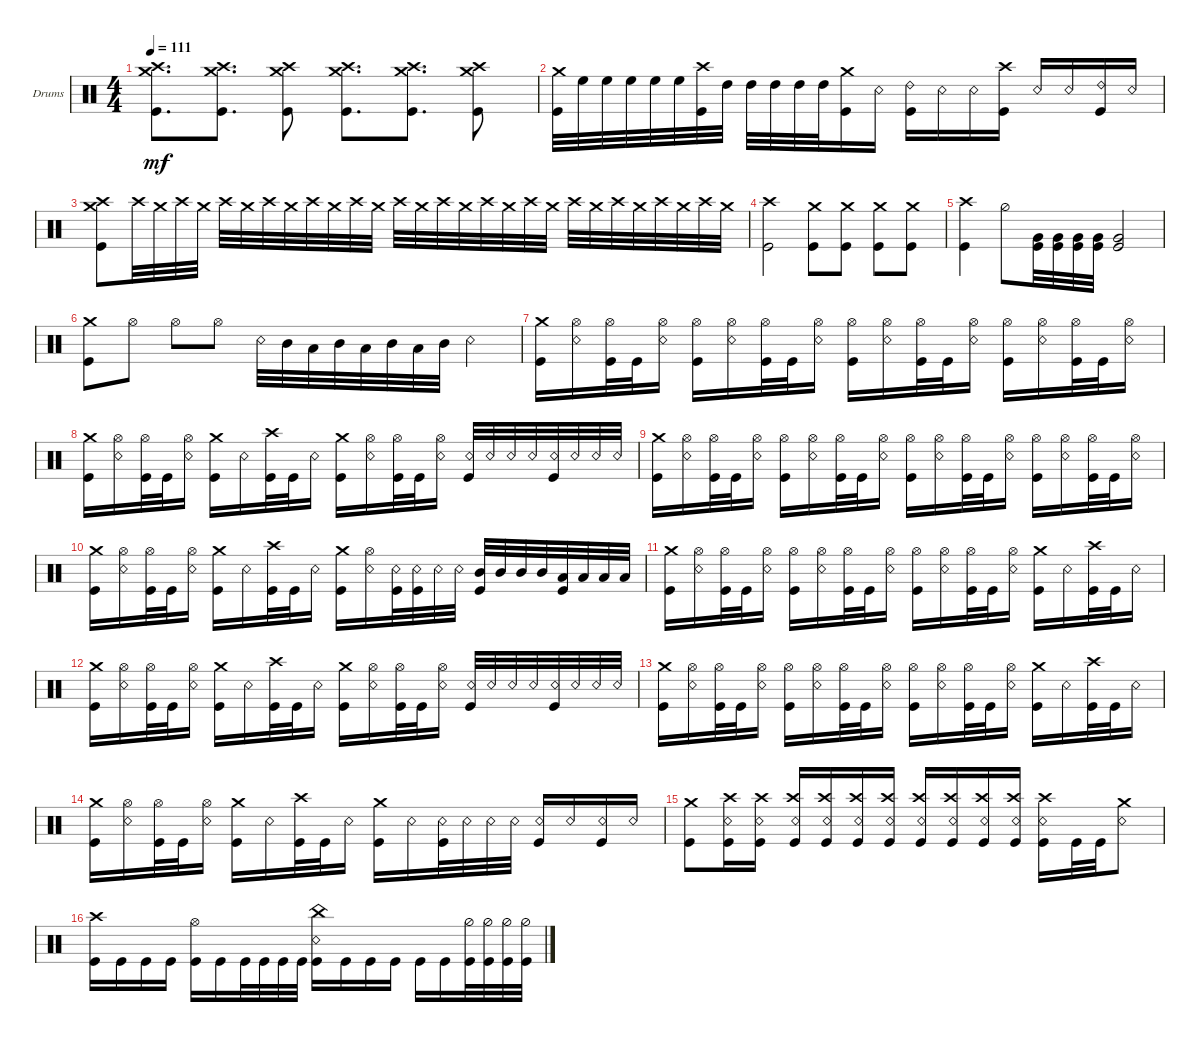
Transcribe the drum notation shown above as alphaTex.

\defaultSystemsLayout 4
\bracketExtendMode groupsimilarinstruments
\firstSystemTrackNameOrientation horizontal
\otherSystemsTrackNameOrientation horizontal
\track ("Drums" "Drums") {instrument percussion}
\staff {score}
\articulation defaults
\ts (4 4)
\tempo 111
\clef neutral
\ks c
("Kick (hit)" "Crash medium (hit)" "Crash high (hit)").8{d dy mf} ("Kick (hit)" "Crash medium (hit)" "Crash high (hit)").8{d} ("Kick (hit)" "Crash medium (hit)" "Crash high (hit)").8 ("Kick (hit)" "Crash medium (hit)" "Crash high (hit)").8{d} ("Kick (hit)" "Crash medium (hit)" "Crash high (hit)").8{d} ("Kick (hit)" "Crash medium (hit)" "Crash high (hit)").8 |
("Kick (hit)" "Crash medium (hit)").32 "High Floor Tom (hit)".32 "High Floor Tom (hit)".32 "High Floor Tom (hit)".32 "High Floor Tom (hit)".32 "High Floor Tom (hit)".32 ("Kick (hit)" "Crash high (hit)").32 "High Tom (hit)".32 "High Tom (hit)".32 "High Tom (hit)".32 "High Tom (hit)".32 "High Tom (hit)".32 ("Kick (hit)" "Crash medium (hit)").16 "Snare (rim shot)".16 ("Kick (hit)" "Ride (bell) 2").16 "Snare (rim shot)".16 "Snare (rim shot)".16 ("Kick (hit)" "Crash high (hit)").16 "Snare (rim shot)".16 "Snare (rim shot)".16 ("Kick (hit)" "Ride (bell) 2").16 "Snare (rim shot)".16 |
("Kick (hit)" "Crash medium (hit)" "Crash high (hit)").8 "Crash high (hit)".32 "Crash medium (hit)".32 "Crash high (hit)".32 "Crash medium (hit)".32 "Crash high (hit)".32 "Crash medium (hit)".32 "Crash high (hit)".32 "Crash medium (hit)".32 "Crash high (hit)".32 "Crash medium (hit)".32 "Crash high (hit)".32 "Crash medium (hit)".32 "Crash high (hit)".32 "Crash medium (hit)".32 "Crash high (hit)".32 "Crash medium (hit)".32 "Crash high (hit)".32 "Crash medium (hit)".32 "Crash high (hit)".32 "Crash medium (hit)".32 "Crash high (hit)".32 "Crash medium (hit)".32 "Crash high (hit)".32 "Crash medium (hit)".32 "Crash high (hit)".32 "Crash medium (hit)".32 "Crash high (hit)".32 "Crash medium (hit)".32 |
("Kick (hit)" "Crash high (hit)").2 ("Kick (hit)" "Crash medium (hit)").8 ("Kick (hit)" "Crash medium (hit)").8 ("Kick (hit)" "Crash medium (hit)").8 ("Kick (hit)" "Crash medium (hit)").8 |
("Kick (hit)" "Crash high (hit)").4 "Hi-Hat (half)".8 ("Kick (hit)" "Very Low Tom (hit)").32 ("Kick (hit)" "Very Low Tom (hit)").32 ("Kick (hit)" "Very Low Tom (hit)").32 ("Kick (hit)" "Very Low Tom (hit)").32 ("Kick (hit)" "Very Low Tom (hit)").2 |
("Kick (hit)" "Crash medium (hit)").8 "Hi-Hat (open)".8 "Hi-Hat (open)".8 "Hi-Hat (open)".8 "Snare (rim shot)".32 "Mid Tom (hit)".32 "Low Tom (hit)".32 "Mid Tom (hit)".32 "Low Tom (hit)".32 "Mid Tom (hit)".32 "Low Tom (hit)".32 "Mid Tom (hit)".32 "Snare (rim shot)".4 |
("Kick (hit)" "Crash medium (hit)").16 ("Snare (rim shot)" "Hi-Hat (open)").16 ("Kick (hit)" "Hi-Hat (open)").32 "Kick (hit)".32 ("Snare (rim shot)" "Hi-Hat (open)").16 ("Kick (hit)" "Hi-Hat (open)").16 ("Snare (rim shot)" "Hi-Hat (open)").16 ("Kick (hit)" "Hi-Hat (open)").32 "Kick (hit)".32 ("Snare (rim shot)" "Hi-Hat (open)").16 ("Kick (hit)" "Hi-Hat (open)").16 ("Snare (rim shot)" "Hi-Hat (open)").16 ("Kick (hit)" "Hi-Hat (open)").32 "Kick (hit)".32 ("Snare (rim shot)" "Hi-Hat (open)").16 ("Kick (hit)" "Hi-Hat (open)").16 ("Snare (rim shot)" "Hi-Hat (open)").16 ("Kick (hit)" "Hi-Hat (open)").32 "Kick (hit)".32 ("Snare (rim shot)" "Hi-Hat (open)").16 |
("Kick (hit)" "Crash medium (hit)").16 ("Snare (rim shot)" "Hi-Hat (open)").16 ("Kick (hit)" "Hi-Hat (open)").32 "Kick (hit)".32 ("Snare (rim shot)" "Hi-Hat (open)").16 ("Kick (hit)" "Crash medium (hit)").16 "Snare (rim shot)".16 ("Kick (hit)" "Crash high (hit)").32 "Kick (hit)".32 "Snare (rim shot)".16 ("Kick (hit)" "Crash medium (hit)").16 ("Snare (rim shot)" "Hi-Hat (open)").16 ("Kick (hit)" "Hi-Hat (open)").32 "Kick (hit)".32 ("Snare (rim shot)" "Hi-Hat (open)").16 ("Kick (hit)" "Snare (rim shot)").32 "Snare (rim shot)".32 "Snare (rim shot)".32 "Snare (rim shot)".32 ("Kick (hit)" "Snare (rim shot)").32 "Snare (rim shot)".32 "Snare (rim shot)".32 "Snare (rim shot)".32 |
("Kick (hit)" "Crash medium (hit)").16 ("Snare (rim shot)" "Hi-Hat (open)").16 ("Kick (hit)" "Hi-Hat (open)").32 "Kick (hit)".32 ("Snare (rim shot)" "Hi-Hat (open)").16 ("Kick (hit)" "Hi-Hat (open)").16 ("Snare (rim shot)" "Hi-Hat (open)").16 ("Kick (hit)" "Hi-Hat (open)").32 "Kick (hit)".32 ("Snare (rim shot)" "Hi-Hat (open)").16 ("Kick (hit)" "Hi-Hat (open)").16 ("Snare (rim shot)" "Hi-Hat (open)").16 ("Kick (hit)" "Hi-Hat (open)").32 "Kick (hit)".32 ("Snare (rim shot)" "Hi-Hat (open)").16 ("Kick (hit)" "Hi-Hat (open)").16 ("Snare (rim shot)" "Hi-Hat (open)").16 ("Kick (hit)" "Hi-Hat (open)").32 "Kick (hit)".32 ("Snare (rim shot)" "Hi-Hat (open)").16 |
("Kick (hit)" "Crash medium (hit)").16 ("Snare (rim shot)" "Hi-Hat (open)").16 ("Kick (hit)" "Hi-Hat (open)").32 "Kick (hit)".32 ("Snare (rim shot)" "Hi-Hat (open)").16 ("Kick (hit)" "Crash medium (hit)").16 "Snare (rim shot)".16 ("Kick (hit)" "Crash high (hit)").32 "Kick (hit)".32 "Snare (rim shot)".16 ("Kick (hit)" "Crash medium (hit)").16 ("Snare (rim shot)" "Hi-Hat (open)").16 ("Kick (hit)" "Snare (rim shot)").32 ("Kick (hit)" "Snare (rim shot)").32 "Snare (rim shot)".32 "Snare (rim shot)".32 ("Mid Tom (hit)" "Kick (hit)").32 "Mid Tom (hit)".32 "Mid Tom (hit)".32 "Mid Tom (hit)".32 ("Low Tom (hit)" "Kick (hit)").32 "Low Tom (hit)".32 "Low Tom (hit)".32 "Low Tom (hit)".32 |
("Kick (hit)" "Crash medium (hit)").16 ("Snare (rim shot)" "Hi-Hat (open)").16 ("Kick (hit)" "Hi-Hat (open)").32 "Kick (hit)".32 ("Snare (rim shot)" "Hi-Hat (open)").16 ("Kick (hit)" "Hi-Hat (open)").16 ("Snare (rim shot)" "Hi-Hat (open)").16 ("Kick (hit)" "Hi-Hat (open)").32 "Kick (hit)".32 ("Snare (rim shot)" "Hi-Hat (open)").16 ("Kick (hit)" "Hi-Hat (open)").16 ("Snare (rim shot)" "Hi-Hat (open)").16 ("Kick (hit)" "Hi-Hat (open)").32 "Kick (hit)".32 ("Snare (rim shot)" "Hi-Hat (open)").16 ("Kick (hit)" "Crash medium (hit)").16 "Snare (rim shot)".16 ("Kick (hit)" "Crash high (hit)").32 "Kick (hit)".32 "Snare (rim shot)".16 |
("Kick (hit)" "Crash medium (hit)").16 ("Snare (rim shot)" "Hi-Hat (open)").16 ("Kick (hit)" "Hi-Hat (open)").32 "Kick (hit)".32 ("Snare (rim shot)" "Hi-Hat (open)").16 ("Kick (hit)" "Crash medium (hit)").16 "Snare (rim shot)".16 ("Kick (hit)" "Crash high (hit)").32 "Kick (hit)".32 "Snare (rim shot)".16 ("Kick (hit)" "Crash medium (hit)").16 ("Snare (rim shot)" "Hi-Hat (open)").16 ("Kick (hit)" "Hi-Hat (open)").32 "Kick (hit)".32 ("Snare (rim shot)" "Hi-Hat (open)").16 ("Kick (hit)" "Snare (rim shot)").32 "Snare (rim shot)".32 "Snare (rim shot)".32 "Snare (rim shot)".32 ("Kick (hit)" "Snare (rim shot)").32 "Snare (rim shot)".32 "Snare (rim shot)".32 "Snare (rim shot)".32 |
("Kick (hit)" "Crash medium (hit)").16 ("Snare (rim shot)" "Hi-Hat (open)").16 ("Kick (hit)" "Hi-Hat (open)").32 "Kick (hit)".32 ("Snare (rim shot)" "Hi-Hat (open)").16 ("Kick (hit)" "Hi-Hat (open)").16 ("Snare (rim shot)" "Hi-Hat (open)").16 ("Kick (hit)" "Hi-Hat (open)").32 "Kick (hit)".32 ("Snare (rim shot)" "Hi-Hat (open)").16 ("Kick (hit)" "Hi-Hat (open)").16 ("Snare (rim shot)" "Hi-Hat (open)").16 ("Kick (hit)" "Hi-Hat (open)").32 "Kick (hit)".32 ("Snare (rim shot)" "Hi-Hat (open)").16 ("Kick (hit)" "Crash medium (hit)").16 "Snare (rim shot)".16 ("Kick (hit)" "Crash high (hit)").32 "Kick (hit)".32 "Snare (rim shot)".16 |
("Kick (hit)" "Crash medium (hit)").16 ("Snare (rim shot)" "Hi-Hat (open)").16 ("Kick (hit)" "Hi-Hat (open)").32 "Kick (hit)".32 ("Snare (rim shot)" "Hi-Hat (open)").16 ("Kick (hit)" "Crash medium (hit)").16 "Snare (rim shot)".16 ("Kick (hit)" "Crash high (hit)").32 "Kick (hit)".32 "Snare (rim shot)".16 ("Kick (hit)" "Crash medium (hit)").16 "Snare (rim shot)".16 ("Kick (hit)" "Snare (rim shot)").32 "Snare (rim shot)".32 "Snare (rim shot)".32 "Snare (rim shot)".32 ("Snare (rim shot)" "Kick (hit)").16 "Snare (rim shot)".16 ("Snare (rim shot)" "Kick (hit)").16 "Snare (rim shot)".16 |
("Kick (hit)" "Crash medium (hit)").8 ("Kick (hit)" "Crash high (hit)" "Snare (rim shot)").16 ("Kick (hit)" "Crash high (hit)" "Snare (rim shot)").16 ("Kick (hit)" "Crash high (hit)" "Snare (rim shot)").16 ("Kick (hit)" "Crash high (hit)" "Snare (rim shot)").16 ("Kick (hit)" "Crash high (hit)" "Snare (rim shot)").16 ("Kick (hit)" "Crash high (hit)" "Snare (rim shot)").16 ("Kick (hit)" "Crash high (hit)" "Snare (rim shot)").16 ("Kick (hit)" "Crash high (hit)" "Snare (rim shot)").16 ("Kick (hit)" "Crash high (hit)" "Snare (rim shot)").16 ("Kick (hit)" "Crash high (hit)" "Snare (rim shot)").16 ("Kick (hit)" "Crash high (hit)" "Snare (rim shot)").16 "Kick (hit)".32 "Kick (hit)".32 ("Crash medium (hit)" "Snare (rim shot)").8 |
("Kick (hit)" "Crash high (hit)").16 "Kick (hit)".16 "Kick (hit)".16 "Kick (hit)".16 ("Kick (hit)" "Hi-Hat (open)").16 "Kick (hit)".16 "Kick (hit)".32 "Kick (hit)".32 "Kick (hit)".32 "Kick (hit)".32 ("Kick (hit)" "China (hit)" "Snare (rim shot)").16 "Kick (hit)".16 "Kick (hit)".16 "Kick (hit)".16 "Kick (hit)".16 "Kick (hit)".16 ("Kick (hit)" "Hi-Hat (half)").32 ("Kick (hit)" "Hi-Hat (half)").32 ("Kick (hit)" "Hi-Hat (half)").32 ("Kick (hit)" "Hi-Hat (half)").32
